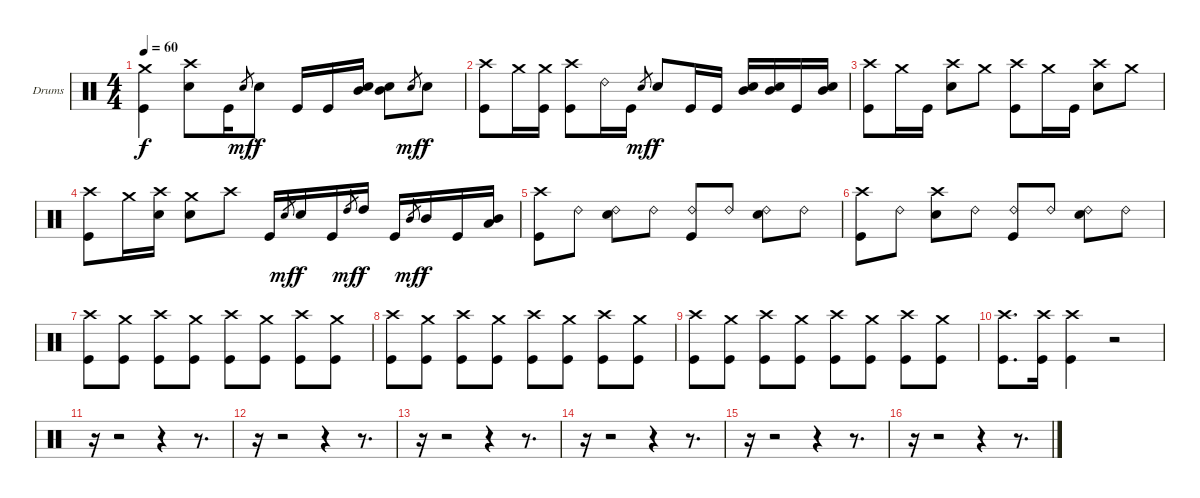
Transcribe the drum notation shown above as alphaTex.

\bracketExtendMode groupsimilarinstruments
\firstSystemTrackNameOrientation horizontal
\otherSystemsTrackNameOrientation horizontal
\track ("Drumkit" "Drums") {instrument percussion}
\staff {score}
\articulation defaults
\ts (4 4)
\tempo 60
\clef neutral
\ks c
("Crash medium (hit)" "Kick (hit)").4{dy f} ("Crash high (hit)" "Snare (hit) 2").8 "Kick (hit)".16 "Snare (hit) 2".8{gr dy mf} "Snare (hit) 2".8{dy f} "Kick (hit)".16 "Kick (hit)".16 ("Mid Tom (hit)" "Snare (hit) 2").16 ("Mid Tom (hit)" "Snare (hit) 2").8 "Snare (hit) 2".8{gr dy mf} "Snare (hit) 2".8{dy f} |
("Crash high (hit)" "Kick (hit)").8 "Crash medium (hit)".16 ("Crash medium (hit)" "Kick (hit)").16 ("Crash high (hit)" "Kick (hit)").8 "Ride (bell) 2".16 "Kick (hit)".16 "Snare (hit) 2".8{gr dy mf} "Snare (hit) 2".8{dy f} "Kick (hit)".16 "Kick (hit)".16 ("Mid Tom (hit)" "Snare (hit) 2").16 ("Mid Tom (hit)" "Snare (hit) 2").16 "Kick (hit)".16 ("Mid Tom (hit)" "Snare (hit) 2").16 |
("Crash high (hit)" "Kick (hit)").8 "Crash medium (hit)".16 "Kick (hit)".16 ("Crash high (hit)" "Snare (hit) 2").8 "Crash medium (hit)".8 ("Crash high (hit)" "Kick (hit)").8 "Crash medium (hit)".16 "Kick (hit)".16 ("Crash high (hit)" "Snare (hit) 2").8 "Crash medium (hit)".8 |
("Crash high (hit)" "Kick (hit)").8 "Crash medium (hit)".16 ("Crash high (hit)" "Snare (hit) 2").16 ("Crash medium (hit)" "Snare (hit) 2").8 "Crash high (hit)".8 "Kick (hit)".16 "Snare (hit) 2".8{gr dy mf} "Snare (hit) 2".16{dy f} "Kick (hit)".16 "High Tom (hit)".8{gr dy mf} "High Tom (hit)".16{dy f} "Kick (hit)".16 "Mid Tom (hit)".8{gr dy mf} "Mid Tom (hit)".16{dy f} "Kick (hit)".16 ("Mid Tom (hit)" "Low Tom (hit)").16 |
("Crash high (hit)" "Kick (hit)").8 "Ride (bell) 2".8 ("Ride (bell) 2" "Snare (hit) 2").8 "Ride (bell) 2".8 ("Ride (bell) 2" "Kick (hit)").8 "Ride (bell) 2".8 ("Ride (bell) 2" "Snare (hit) 2").8 "Ride (bell) 2".8 |
("Crash high (hit)" "Kick (hit)").8 "Ride (bell) 2".8 ("Crash high (hit)" "Snare (hit) 2").8 "Ride (bell) 2".8 ("Ride (bell) 2" "Kick (hit)").8 "Ride (bell) 2".8 ("Ride (bell) 2" "Snare (hit) 2").8 "Ride (bell) 2".8 |
("Crash high (hit)" "Kick (hit)").8 ("Crash medium (hit)" "Kick (hit)").8 ("Crash high (hit)" "Kick (hit)").8 ("Crash medium (hit)" "Kick (hit)").8 ("Crash high (hit)" "Kick (hit)").8 ("Crash medium (hit)" "Kick (hit)").8 ("Crash high (hit)" "Kick (hit)").8 ("Crash medium (hit)" "Kick (hit)").8 |
("Crash high (hit)" "Kick (hit)").8 ("Crash medium (hit)" "Kick (hit)").8 ("Crash high (hit)" "Kick (hit)").8 ("Crash medium (hit)" "Kick (hit)").8 ("Crash high (hit)" "Kick (hit)").8 ("Crash medium (hit)" "Kick (hit)").8 ("Crash high (hit)" "Kick (hit)").8 ("Crash medium (hit)" "Kick (hit)").8 |
("Crash high (hit)" "Kick (hit)").8 ("Crash medium (hit)" "Kick (hit)").8 ("Crash high (hit)" "Kick (hit)").8 ("Crash medium (hit)" "Kick (hit)").8 ("Crash high (hit)" "Kick (hit)").8 ("Crash medium (hit)" "Kick (hit)").8 ("Crash high (hit)" "Kick (hit)").8 ("Crash medium (hit)" "Kick (hit)").8 |
("Crash high (hit)" "Kick (hit)").8{d} ("Crash high (hit)" "Kick (hit)").16 ("Crash high (hit)" "Kick (hit)").4 r.2 |
r.16 r.2 r.4 r.8{d} |
r.16 r.2 r.4 r.8{d} |
r.16 r.2 r.4 r.8{d} |
r.16 r.2 r.4 r.8{d} |
r.16 r.2 r.4 r.8{d} |
r.16 r.2 r.4 r.8{d}
